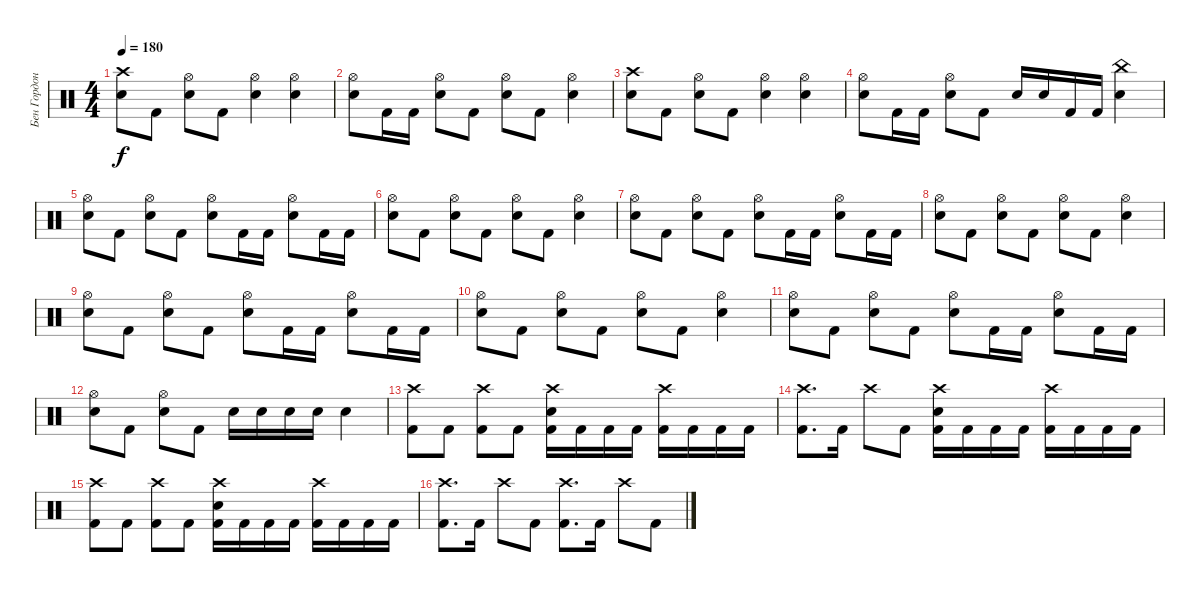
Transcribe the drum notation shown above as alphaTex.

\track ("Бен Гордон" "Бен Гордон") {instrument percussion}
\staff {score}
\articulation defaults
\ts (4 4)
\tempo 180
\clef neutral
\ks c
("Crash high (hit)" "Electric Snare (hit)").8{dy f} "Kick (hit) 2".8 ("Hi-Hat (open)" "Electric Snare (hit)").8 "Kick (hit) 2".8 ("Hi-Hat (open)" "Electric Snare (hit)").4 ("Hi-Hat (open)" "Electric Snare (hit)").4 |
("Hi-Hat (open)" "Electric Snare (hit)").8 "Kick (hit) 2".16 "Kick (hit) 2".16 ("Hi-Hat (open)" "Electric Snare (hit)").8 "Kick (hit) 2".8 ("Hi-Hat (open)" "Electric Snare (hit)").8 "Kick (hit) 2".8 ("Hi-Hat (open)" "Electric Snare (hit)").4 |
("Crash high (hit)" "Electric Snare (hit)").8 "Kick (hit) 2".8 ("Hi-Hat (open)" "Electric Snare (hit)").8 "Kick (hit) 2".8 ("Hi-Hat (open)" "Electric Snare (hit)").4 ("Hi-Hat (open)" "Electric Snare (hit)").4 |
("Hi-Hat (open)" "Electric Snare (hit)").8 "Kick (hit) 2".16 "Kick (hit) 2".16 ("Hi-Hat (open)" "Electric Snare (hit)").8 "Kick (hit) 2".8 "Electric Snare (hit)".16 "Electric Snare (hit)".16 "Kick (hit) 2".16 "Kick (hit) 2".16 ("China (hit)" "Electric Snare (hit)").4 |
("Hi-Hat (open)" "Electric Snare (hit)").8 "Kick (hit) 2".8 ("Hi-Hat (open)" "Electric Snare (hit)").8 "Kick (hit) 2".8 ("Hi-Hat (open)" "Electric Snare (hit)").8 "Kick (hit) 2".16 "Kick (hit) 2".16 ("Hi-Hat (open)" "Electric Snare (hit)").8 "Kick (hit) 2".16 "Kick (hit) 2".16 |
("Hi-Hat (open)" "Electric Snare (hit)").8 "Kick (hit) 2".8 ("Hi-Hat (open)" "Electric Snare (hit)").8 "Kick (hit) 2".8 ("Hi-Hat (open)" "Electric Snare (hit)").8 "Kick (hit) 2".8 ("Hi-Hat (open)" "Electric Snare (hit)").4 |
("Hi-Hat (open)" "Electric Snare (hit)").8 "Kick (hit) 2".8 ("Hi-Hat (open)" "Electric Snare (hit)").8 "Kick (hit) 2".8 ("Hi-Hat (open)" "Electric Snare (hit)").8 "Kick (hit) 2".16 "Kick (hit) 2".16 ("Hi-Hat (open)" "Electric Snare (hit)").8 "Kick (hit) 2".16 "Kick (hit) 2".16 |
("Hi-Hat (open)" "Electric Snare (hit)").8 "Kick (hit) 2".8 ("Hi-Hat (open)" "Electric Snare (hit)").8 "Kick (hit) 2".8 ("Hi-Hat (open)" "Electric Snare (hit)").8 "Kick (hit) 2".8 ("Hi-Hat (open)" "Electric Snare (hit)").4 |
("Hi-Hat (open)" "Electric Snare (hit)").8 "Kick (hit) 2".8 ("Hi-Hat (open)" "Electric Snare (hit)").8 "Kick (hit) 2".8 ("Hi-Hat (open)" "Electric Snare (hit)").8 "Kick (hit) 2".16 "Kick (hit) 2".16 ("Hi-Hat (open)" "Electric Snare (hit)").8 "Kick (hit) 2".16 "Kick (hit) 2".16 |
("Hi-Hat (open)" "Electric Snare (hit)").8 "Kick (hit) 2".8 ("Hi-Hat (open)" "Electric Snare (hit)").8 "Kick (hit) 2".8 ("Hi-Hat (open)" "Electric Snare (hit)").8 "Kick (hit) 2".8 ("Hi-Hat (open)" "Electric Snare (hit)").4 |
("Hi-Hat (open)" "Electric Snare (hit)").8 "Kick (hit) 2".8 ("Hi-Hat (open)" "Electric Snare (hit)").8 "Kick (hit) 2".8 ("Hi-Hat (open)" "Electric Snare (hit)").8 "Kick (hit) 2".16 "Kick (hit) 2".16 ("Hi-Hat (open)" "Electric Snare (hit)").8 "Kick (hit) 2".16 "Kick (hit) 2".16 |
("Hi-Hat (open)" "Electric Snare (hit)").8 "Kick (hit) 2".8 ("Hi-Hat (open)" "Electric Snare (hit)").8 "Kick (hit) 2".8 "Electric Snare (hit)".16 "Electric Snare (hit)".16 "Electric Snare (hit)".16 "Electric Snare (hit)".16 "Electric Snare (hit)".4 |
("Crash high (hit)" "Kick (hit) 2").8 "Kick (hit) 2".8 ("Crash high (hit)" "Kick (hit) 2").8 "Kick (hit) 2".8 ("Crash high (hit)" "Electric Snare (hit)" "Kick (hit) 2").16 "Kick (hit) 2".16 "Kick (hit) 2".16 "Kick (hit) 2".16 ("Crash high (hit)" "Kick (hit) 2").16 "Kick (hit) 2".16 "Kick (hit) 2".16 "Kick (hit) 2".16 |
("Crash high (hit)" "Kick (hit) 2").8{d} "Kick (hit) 2".16 "Crash high (hit)".8 "Kick (hit) 2".8 ("Crash high (hit)" "Electric Snare (hit)" "Kick (hit) 2").16 "Kick (hit) 2".16 "Kick (hit) 2".16 "Kick (hit) 2".16 ("Crash high (hit)" "Kick (hit) 2").16 "Kick (hit) 2".16 "Kick (hit) 2".16 "Kick (hit) 2".16 |
("Crash high (hit)" "Kick (hit) 2").8 "Kick (hit) 2".8 ("Crash high (hit)" "Kick (hit) 2").8 "Kick (hit) 2".8 ("Crash high (hit)" "Electric Snare (hit)" "Kick (hit) 2").16 "Kick (hit) 2".16 "Kick (hit) 2".16 "Kick (hit) 2".16 ("Crash high (hit)" "Kick (hit) 2").16 "Kick (hit) 2".16 "Kick (hit) 2".16 "Kick (hit) 2".16 |
("Crash high (hit)" "Kick (hit) 2").8{d} "Kick (hit) 2".16 "Crash high (hit)".8 "Kick (hit) 2".8 ("Crash high (hit)" "Kick (hit) 2").8{d} "Kick (hit) 2".16 "Crash high (hit)".8 "Kick (hit) 2".8
